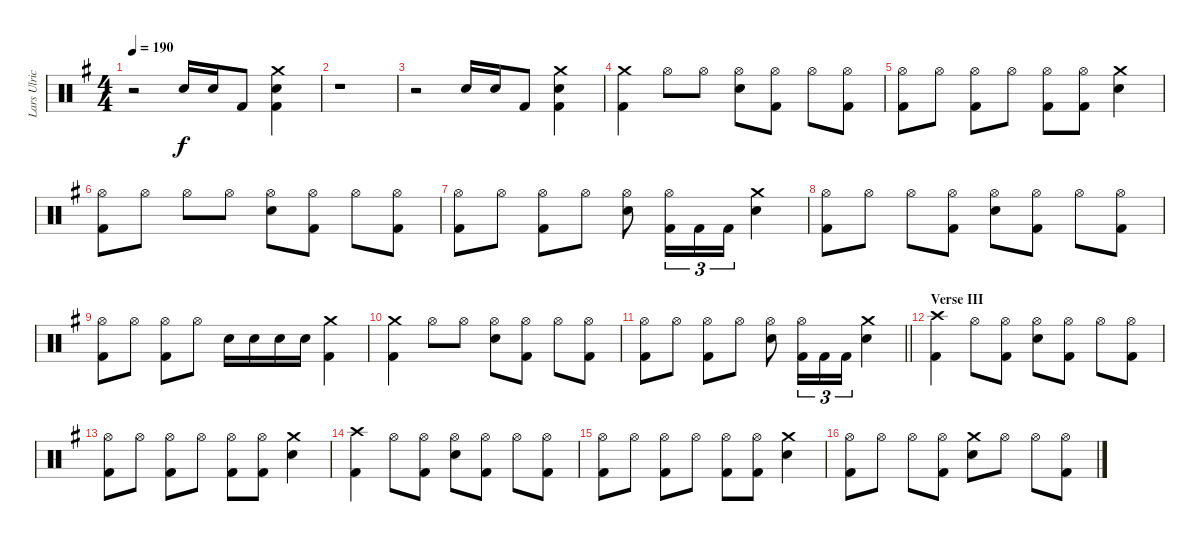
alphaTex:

\track ("Lars Ulrich - Drums" "Lars Ulric") {instrument percussion}
\staff {score}
\articulation defaults
\ts (4 4)
\tempo 190
\clef neutral
\ks eminor
r.2{dy f} "Snare (hit) 2".16 "Snare (hit) 2".16 "Kick (hit) 2".8 ("Crash medium (hit)" "Snare (hit) 2" "Kick (hit) 2").4 |
r.1 |
r.2 "Snare (hit) 2".16 "Snare (hit) 2".16 "Kick (hit) 2".8 ("Crash medium (hit)" "Snare (hit) 2" "Kick (hit) 2").4 |
("Crash medium (hit)" "Kick (hit) 2").4 "Hi-Hat (open)".8 "Hi-Hat (open)".8 ("Hi-Hat (open)" "Snare (hit) 2").8 ("Hi-Hat (open)" "Kick (hit) 2").8 "Hi-Hat (open)".8 ("Hi-Hat (open)" "Kick (hit) 2").8 |
("Hi-Hat (open)" "Kick (hit) 2").8 "Hi-Hat (open)".8 ("Hi-Hat (open)" "Kick (hit) 2").8 "Hi-Hat (open)".8 ("Hi-Hat (open)" "Kick (hit) 2").8 ("Hi-Hat (open)" "Kick (hit) 2").8 ("Crash medium (hit)" "Snare (hit) 2").4 |
("Hi-Hat (open)" "Kick (hit) 2").8 "Hi-Hat (open)".8 "Hi-Hat (open)".8 "Hi-Hat (open)".8 ("Hi-Hat (open)" "Snare (hit) 2").8 ("Hi-Hat (open)" "Kick (hit) 2").8 "Hi-Hat (open)".8 ("Hi-Hat (open)" "Kick (hit) 2").8 |
("Hi-Hat (open)" "Kick (hit) 2").8 "Hi-Hat (open)".8 ("Hi-Hat (open)" "Kick (hit) 2").8 "Hi-Hat (open)".8 ("Hi-Hat (open)" "Snare (hit) 2").8 ("Hi-Hat (open)" "Kick (hit) 2").16{tu (3 2)} "Kick (hit) 2".16{tu (3 2)} "Kick (hit) 2".16{tu (3 2)} ("Crash medium (hit)" "Snare (hit) 2").4 |
("Hi-Hat (open)" "Kick (hit) 2").8 "Hi-Hat (open)".8 "Hi-Hat (open)".8 ("Hi-Hat (open)" "Kick (hit) 2").8 ("Hi-Hat (open)" "Snare (hit) 2").8 ("Hi-Hat (open)" "Kick (hit) 2").8 "Hi-Hat (open)".8 ("Hi-Hat (open)" "Kick (hit) 2").8 |
("Hi-Hat (open)" "Kick (hit) 2").8 "Hi-Hat (open)".8 ("Hi-Hat (open)" "Kick (hit) 2").8 "Hi-Hat (open)".8 "Snare (hit) 2".16 "Snare (hit) 2".16 "Snare (hit) 2".16 "Snare (hit) 2".16 ("Crash medium (hit)" "Kick (hit) 2").4 |
("Crash medium (hit)" "Kick (hit) 2").4 "Hi-Hat (open)".8 "Hi-Hat (open)".8 ("Hi-Hat (open)" "Snare (hit) 2").8 ("Hi-Hat (open)" "Kick (hit) 2").8 "Hi-Hat (open)".8 ("Hi-Hat (open)" "Kick (hit) 2").8 |
\barLineRight lightlight
("Hi-Hat (open)" "Kick (hit) 2").8 "Hi-Hat (open)".8 ("Hi-Hat (open)" "Kick (hit) 2").8 "Hi-Hat (open)".8 ("Hi-Hat (open)" "Snare (hit) 2").8 ("Hi-Hat (open)" "Kick (hit) 2").16{tu (3 2)} "Kick (hit) 2".16{tu (3 2)} "Kick (hit) 2".16{tu (3 2)} ("Crash medium (hit)" "Snare (hit) 2").4 |
\section ("" "Verse III")
("Crash high (hit)" "Kick (hit) 2").4 "Hi-Hat (open)".8 ("Hi-Hat (open)" "Kick (hit) 2").8 ("Hi-Hat (open)" "Snare (hit) 2").8 ("Hi-Hat (open)" "Kick (hit) 2").8 "Hi-Hat (open)".8 ("Hi-Hat (open)" "Kick (hit) 2").8 |
("Hi-Hat (open)" "Kick (hit) 2").8 "Hi-Hat (open)".8 ("Hi-Hat (open)" "Kick (hit) 2").8 "Hi-Hat (open)".8 ("Hi-Hat (open)" "Kick (hit) 2").8 ("Hi-Hat (open)" "Kick (hit) 2").8 ("Crash medium (hit)" "Snare (hit) 2").4 |
("Crash high (hit)" "Kick (hit) 2").4 "Hi-Hat (open)".8 ("Hi-Hat (open)" "Kick (hit) 2").8 ("Hi-Hat (open)" "Snare (hit) 2").8 ("Hi-Hat (open)" "Kick (hit) 2").8 "Hi-Hat (open)".8 ("Hi-Hat (open)" "Kick (hit) 2").8 |
("Hi-Hat (open)" "Kick (hit) 2").8 "Hi-Hat (open)".8 ("Hi-Hat (open)" "Kick (hit) 2").8 "Hi-Hat (open)".8 ("Hi-Hat (open)" "Kick (hit) 2").8 ("Hi-Hat (open)" "Kick (hit) 2").8 ("Crash medium (hit)" "Snare (hit) 2").4 |
("Hi-Hat (open)" "Kick (hit) 2").8 "Hi-Hat (open)".8 "Hi-Hat (open)".8 ("Hi-Hat (open)" "Kick (hit) 2").8 ("Crash medium (hit)" "Snare (hit) 2").8 "Hi-Hat (open)".8 "Hi-Hat (open)".8 ("Hi-Hat (open)" "Kick (hit) 2").8
